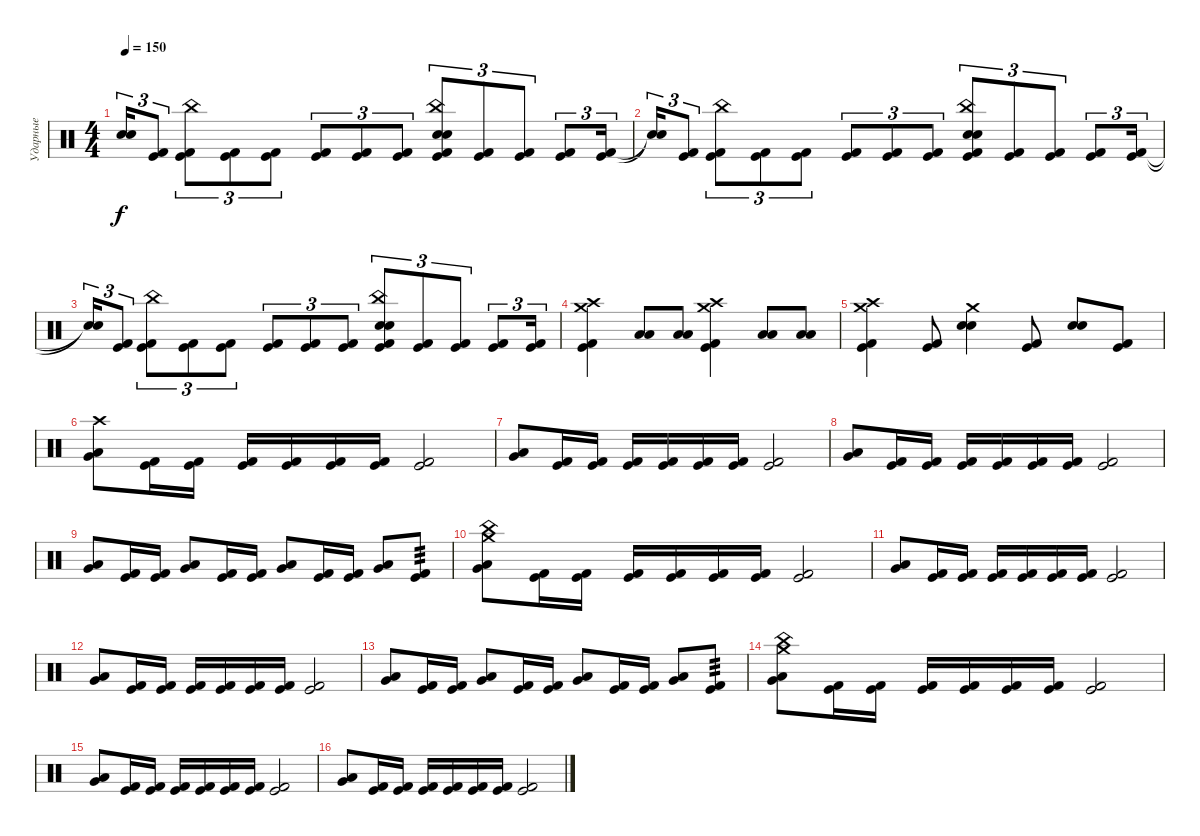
\track ("Ударные" "Ударные") {instrument percussion}
\staff {score}
\articulation defaults
\ts (4 4)
\tempo 150
\clef neutral
\ks c
("Snare (hit)"{t} "Snare (hit)"{t}).16{tu (3 2) dy f} ("Kick (hit) 2" "Kick (hit)").8{tu (3 2)} ("Kick (hit) 2" "Kick (hit)" "China (hit)").8{tu (3 2)} ("Kick (hit) 2" "Kick (hit)").8{tu (3 2)} ("Kick (hit) 2" "Kick (hit)").8{tu (3 2)} ("Kick (hit) 2" "Kick (hit)").8{tu (3 2)} ("Kick (hit) 2" "Kick (hit)").8{tu (3 2)} ("Kick (hit) 2" "Kick (hit)").8{tu (3 2)} ("Kick (hit) 2" "Kick (hit)" "Electric Snare (hit)" "Snare (hit) 2" "China (hit)").8{tu (3 2)} ("Kick (hit) 2" "Kick (hit)").8{tu (3 2)} ("Kick (hit) 2" "Kick (hit)").8{tu (3 2)} ("Kick (hit) 2" "Kick (hit)").8{tu (3 2)} ("Kick (hit) 2" "Kick (hit)").16{tu (3 2)} |
("Snare (hit)"{t} "Snare (hit)"{t}).16{tu (3 2)} ("Kick (hit) 2" "Kick (hit)").8{tu (3 2)} ("Kick (hit) 2" "Kick (hit)" "China (hit)").8{tu (3 2)} ("Kick (hit) 2" "Kick (hit)").8{tu (3 2)} ("Kick (hit) 2" "Kick (hit)").8{tu (3 2)} ("Kick (hit) 2" "Kick (hit)").8{tu (3 2)} ("Kick (hit) 2" "Kick (hit)").8{tu (3 2)} ("Kick (hit) 2" "Kick (hit)").8{tu (3 2)} ("Kick (hit) 2" "Kick (hit)" "Electric Snare (hit)" "Snare (hit) 2" "China (hit)").8{tu (3 2)} ("Kick (hit) 2" "Kick (hit)").8{tu (3 2)} ("Kick (hit) 2" "Kick (hit)").8{tu (3 2)} ("Kick (hit) 2" "Kick (hit)").8{tu (3 2)} ("Kick (hit) 2" "Kick (hit)").16{tu (3 2)} |
("Snare (hit)"{t} "Snare (hit)"{t}).16{tu (3 2)} ("Kick (hit) 2" "Kick (hit)").8{tu (3 2)} ("Kick (hit) 2" "Kick (hit)" "China (hit)").8{tu (3 2)} ("Kick (hit) 2" "Kick (hit)").8{tu (3 2)} ("Kick (hit) 2" "Kick (hit)").8{tu (3 2)} ("Kick (hit) 2" "Kick (hit)").8{tu (3 2)} ("Kick (hit) 2" "Kick (hit)").8{tu (3 2)} ("Kick (hit) 2" "Kick (hit)").8{tu (3 2)} ("Kick (hit) 2" "Kick (hit)" "Electric Snare (hit)" "Snare (hit) 2" "China (hit)").8{tu (3 2)} ("Kick (hit) 2" "Kick (hit)").8{tu (3 2)} ("Kick (hit) 2" "Kick (hit)").8{tu (3 2)} ("Kick (hit) 2" "Kick (hit)").8{tu (3 2)} ("Kick (hit) 2" "Kick (hit)").16{tu (3 2)} |
("Kick (hit) 2" "Kick (hit)" "Crash medium (hit)" "Crash high (hit)").4 ("Low Tom (hit)" "Low Floor Tom (hit)").8 ("Low Tom (hit)" "Low Floor Tom (hit)").8 ("Kick (hit) 2" "Kick (hit)" "Crash medium (hit)" "Crash high (hit)").4 ("Low Tom (hit)" "Low Floor Tom (hit)").8 ("Low Floor Tom (hit)" "Low Floor Tom (hit)").8 |
("Kick (hit) 2" "Kick (hit)" "Crash medium (hit)" "Crash high (hit)").4 ("Kick (hit) 2" "Kick (hit)").8 ("Snare (hit) 2" "Electric Snare (hit)" "Crash medium (hit)").4 ("Kick (hit) 2" "Kick (hit)").8 ("Snare (hit) 2" "Electric Snare (hit)").8 ("Kick (hit) 2" "Kick (hit)").8 |
("Very Low Tom (hit)" "Low Tom (hit)" "Crash high (hit)").8 ("Kick (hit) 2" "Kick (hit)").16 ("Kick (hit) 2" "Kick (hit)").16 ("Kick (hit) 2" "Kick (hit)").16 ("Kick (hit) 2" "Kick (hit)").16 ("Kick (hit) 2" "Kick (hit)").16 ("Kick (hit) 2" "Kick (hit)").16 ("Kick (hit) 2" "Kick (hit)").2 |
("Very Low Tom (hit)" "Low Tom (hit)").8 ("Kick (hit) 2" "Kick (hit)").16 ("Kick (hit) 2" "Kick (hit)").16 ("Kick (hit) 2" "Kick (hit)").16 ("Kick (hit) 2" "Kick (hit)").16 ("Kick (hit) 2" "Kick (hit)").16 ("Kick (hit) 2" "Kick (hit)").16 ("Kick (hit) 2" "Kick (hit)").2 |
("Very Low Tom (hit)" "Low Tom (hit)").8 ("Kick (hit) 2" "Kick (hit)").16 ("Kick (hit) 2" "Kick (hit)").16 ("Kick (hit) 2" "Kick (hit)").16 ("Kick (hit) 2" "Kick (hit)").16 ("Kick (hit) 2" "Kick (hit)").16 ("Kick (hit) 2" "Kick (hit)").16 ("Kick (hit) 2" "Kick (hit)").2 |
("Very Low Tom (hit)" "Low Tom (hit)").8 ("Kick (hit) 2" "Kick (hit)").16 ("Kick (hit) 2" "Kick (hit)").16 ("Very Low Tom (hit)" "Low Tom (hit)").8 ("Kick (hit) 2" "Kick (hit)").16 ("Kick (hit) 2" "Kick (hit)").16 ("Very Low Tom (hit)" "Low Tom (hit)").8 ("Kick (hit) 2" "Kick (hit)").16 ("Kick (hit) 2" "Kick (hit)").16 ("Very Low Tom (hit)" "Low Tom (hit)").8 ("Kick (hit) 2" "Kick (hit)").8{tp 3} |
("Very Low Tom (hit)" "Low Tom (hit)" "Crash medium (hit)" "China (hit)").8 ("Kick (hit) 2" "Kick (hit)").16 ("Kick (hit) 2" "Kick (hit)").16 ("Kick (hit) 2" "Kick (hit)").16 ("Kick (hit) 2" "Kick (hit)").16 ("Kick (hit) 2" "Kick (hit)").16 ("Kick (hit) 2" "Kick (hit)").16 ("Kick (hit) 2" "Kick (hit)").2 |
("Very Low Tom (hit)" "Low Tom (hit)").8 ("Kick (hit) 2" "Kick (hit)").16 ("Kick (hit) 2" "Kick (hit)").16 ("Kick (hit) 2" "Kick (hit)").16 ("Kick (hit) 2" "Kick (hit)").16 ("Kick (hit) 2" "Kick (hit)").16 ("Kick (hit) 2" "Kick (hit)").16 ("Kick (hit) 2" "Kick (hit)").2 |
("Very Low Tom (hit)" "Low Tom (hit)").8 ("Kick (hit) 2" "Kick (hit)").16 ("Kick (hit) 2" "Kick (hit)").16 ("Kick (hit) 2" "Kick (hit)").16 ("Kick (hit) 2" "Kick (hit)").16 ("Kick (hit) 2" "Kick (hit)").16 ("Kick (hit) 2" "Kick (hit)").16 ("Kick (hit) 2" "Kick (hit)").2 |
("Very Low Tom (hit)" "Low Tom (hit)").8 ("Kick (hit) 2" "Kick (hit)").16 ("Kick (hit) 2" "Kick (hit)").16 ("Very Low Tom (hit)" "Low Tom (hit)").8 ("Kick (hit) 2" "Kick (hit)").16 ("Kick (hit) 2" "Kick (hit)").16 ("Very Low Tom (hit)" "Low Tom (hit)").8 ("Kick (hit) 2" "Kick (hit)").16 ("Kick (hit) 2" "Kick (hit)").16 ("Very Low Tom (hit)" "Low Tom (hit)").8 ("Kick (hit) 2" "Kick (hit)").8{tp 3} |
("Very Low Tom (hit)" "Low Tom (hit)" "Crash medium (hit)" "China (hit)").8 ("Kick (hit) 2" "Kick (hit)").16 ("Kick (hit) 2" "Kick (hit)").16 ("Kick (hit) 2" "Kick (hit)").16 ("Kick (hit) 2" "Kick (hit)").16 ("Kick (hit) 2" "Kick (hit)").16 ("Kick (hit) 2" "Kick (hit)").16 ("Kick (hit) 2" "Kick (hit)").2 |
("Very Low Tom (hit)" "Low Tom (hit)").8 ("Kick (hit) 2" "Kick (hit)").16 ("Kick (hit) 2" "Kick (hit)").16 ("Kick (hit) 2" "Kick (hit)").16 ("Kick (hit) 2" "Kick (hit)").16 ("Kick (hit) 2" "Kick (hit)").16 ("Kick (hit) 2" "Kick (hit)").16 ("Kick (hit) 2" "Kick (hit)").2 |
("Very Low Tom (hit)" "Low Tom (hit)").8 ("Kick (hit) 2" "Kick (hit)").16 ("Kick (hit) 2" "Kick (hit)").16 ("Kick (hit) 2" "Kick (hit)").16 ("Kick (hit) 2" "Kick (hit)").16 ("Kick (hit) 2" "Kick (hit)").16 ("Kick (hit) 2" "Kick (hit)").16 ("Kick (hit) 2" "Kick (hit)").2
